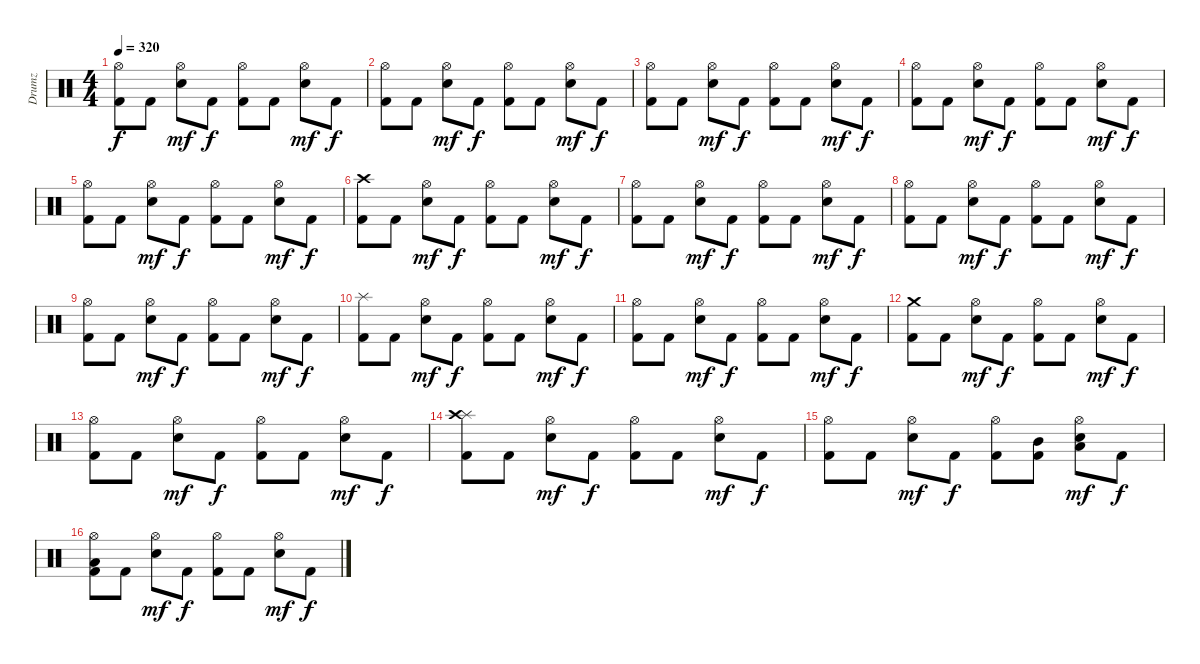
\track ("Drumz" "Drumz") {instrument percussion}
\staff {score}
\articulation defaults
\ts (4 4)
\tempo 320
\clef neutral
\ks c
("Hi-Hat (open)" "Kick (hit) 2").8{dy f} "Kick (hit) 2".8 ("Snare (hit) 2" "Hi-Hat (open)").8{dy mf} "Kick (hit) 2".8{dy f} ("Kick (hit) 2" "Hi-Hat (open)").8 "Kick (hit) 2".8 ("Snare (hit) 2" "Hi-Hat (open)").8{dy mf} "Kick (hit) 2".8{dy f} |
("Hi-Hat (open)" "Kick (hit) 2").8 "Kick (hit) 2".8 ("Snare (hit) 2" "Hi-Hat (open)").8{dy mf} "Kick (hit) 2".8{dy f} ("Kick (hit) 2" "Hi-Hat (open)").8 "Kick (hit) 2".8 ("Snare (hit) 2" "Hi-Hat (open)").8{dy mf} "Kick (hit) 2".8{dy f} |
("Hi-Hat (open)" "Kick (hit) 2").8 "Kick (hit) 2".8 ("Snare (hit) 2" "Hi-Hat (open)").8{dy mf} "Kick (hit) 2".8{dy f} ("Kick (hit) 2" "Hi-Hat (open)").8 "Kick (hit) 2".8 ("Snare (hit) 2" "Hi-Hat (open)").8{dy mf} "Kick (hit) 2".8{dy f} |
("Hi-Hat (open)" "Kick (hit) 2").8 "Kick (hit) 2".8 ("Snare (hit) 2" "Hi-Hat (open)").8{dy mf} "Kick (hit) 2".8{dy f} ("Kick (hit) 2" "Hi-Hat (open)").8 "Kick (hit) 2".8 ("Snare (hit) 2" "Hi-Hat (open)").8{dy mf} "Kick (hit) 2".8{dy f} |
("Hi-Hat (open)" "Kick (hit) 2").8 "Kick (hit) 2".8 ("Snare (hit) 2" "Hi-Hat (open)").8{dy mf} "Kick (hit) 2".8{dy f} ("Kick (hit) 2" "Hi-Hat (open)").8 "Kick (hit) 2".8 ("Snare (hit) 2" "Hi-Hat (open)").8{dy mf} "Kick (hit) 2".8{dy f} |
("Crash high (hit)" "Kick (hit) 2").8 "Kick (hit) 2".8 ("Snare (hit) 2" "Hi-Hat (open)").8{dy mf} "Kick (hit) 2".8{dy f} ("Kick (hit) 2" "Hi-Hat (open)").8 "Kick (hit) 2".8 ("Snare (hit) 2" "Hi-Hat (open)").8{dy mf} "Kick (hit) 2".8{dy f} |
("Hi-Hat (open)" "Kick (hit) 2").8 "Kick (hit) 2".8 ("Snare (hit) 2" "Hi-Hat (open)").8{dy mf} "Kick (hit) 2".8{dy f} ("Kick (hit) 2" "Hi-Hat (open)").8 "Kick (hit) 2".8 ("Snare (hit) 2" "Hi-Hat (open)").8{dy mf} "Kick (hit) 2".8{dy f} |
("Hi-Hat (open)" "Kick (hit) 2").8 "Kick (hit) 2".8 ("Snare (hit) 2" "Hi-Hat (open)").8{dy mf} "Kick (hit) 2".8{dy f} ("Kick (hit) 2" "Hi-Hat (open)").8 "Kick (hit) 2".8 ("Snare (hit) 2" "Hi-Hat (open)").8{dy mf} "Kick (hit) 2".8{dy f} |
("Hi-Hat (open)" "Kick (hit) 2").8 "Kick (hit) 2".8 ("Snare (hit) 2" "Hi-Hat (open)").8{dy mf} "Kick (hit) 2".8{dy f} ("Kick (hit) 2" "Hi-Hat (open)").8 "Kick (hit) 2".8 ("Snare (hit) 2" "Hi-Hat (open)").8{dy mf} "Kick (hit) 2".8{dy f} |
("Splash (hit)" "Kick (hit) 2").8 "Kick (hit) 2".8 ("Snare (hit) 2" "Hi-Hat (open)").8{dy mf} "Kick (hit) 2".8{dy f} ("Kick (hit) 2" "Hi-Hat (open)").8 "Kick (hit) 2".8 ("Snare (hit) 2" "Hi-Hat (open)").8{dy mf} "Kick (hit) 2".8{dy f} |
("Hi-Hat (open)" "Kick (hit) 2").8 "Kick (hit) 2".8 ("Snare (hit) 2" "Hi-Hat (open)").8{dy mf} "Kick (hit) 2".8{dy f} ("Kick (hit) 2" "Hi-Hat (open)").8 "Kick (hit) 2".8 ("Snare (hit) 2" "Hi-Hat (open)").8{dy mf} "Kick (hit) 2".8{dy f} |
("Crash medium (hit)" "Kick (hit) 2").8 "Kick (hit) 2".8 ("Snare (hit) 2" "Hi-Hat (open)").8{dy mf} "Kick (hit) 2".8{dy f} ("Kick (hit) 2" "Hi-Hat (open)").8 "Kick (hit) 2".8 ("Snare (hit) 2" "Hi-Hat (open)").8{dy mf} "Kick (hit) 2".8{dy f} |
("Hi-Hat (open)" "Kick (hit) 2").8 "Kick (hit) 2".8 ("Snare (hit) 2" "Hi-Hat (open)").8{dy mf} "Kick (hit) 2".8{dy f} ("Kick (hit) 2" "Hi-Hat (open)").8 "Kick (hit) 2".8 ("Snare (hit) 2" "Hi-Hat (open)").8{dy mf} "Kick (hit) 2".8{dy f} |
("Kick (hit) 2" "Splash (hit)" "Crash high (hit)").8 "Kick (hit) 2".8 ("Snare (hit) 2" "Hi-Hat (open)").8{dy mf} "Kick (hit) 2".8{dy f} ("Kick (hit) 2" "Hi-Hat (open)").8 "Kick (hit) 2".8 ("Snare (hit) 2" "Hi-Hat (open)").8{dy mf} "Kick (hit) 2".8{dy f} |
("Kick (hit) 2" "Hi-Hat (open)").8 "Kick (hit) 2".8 ("Snare (hit) 2" "Hi-Hat (open)").8{dy mf} "Kick (hit) 2".8{dy f} ("Kick (hit) 2" "Hi-Hat (open)").8 ("Kick (hit) 2" "Mid Tom (hit)").8 ("Hi-Hat (open)" "Snare (hit) 2" "Low Tom (hit)").8{dy mf} "Kick (hit) 2".8{dy f} |
("Kick (hit) 2" "Hi-Hat (open)" "Low Floor Tom (hit)").8 "Kick (hit) 2".8 ("Snare (hit) 2" "Hi-Hat (open)").8{dy mf} "Kick (hit) 2".8{dy f} ("Kick (hit) 2" "Hi-Hat (open)").8 "Kick (hit) 2".8 ("Snare (hit) 2" "Hi-Hat (open)").8{dy mf} "Kick (hit) 2".8{dy f}
